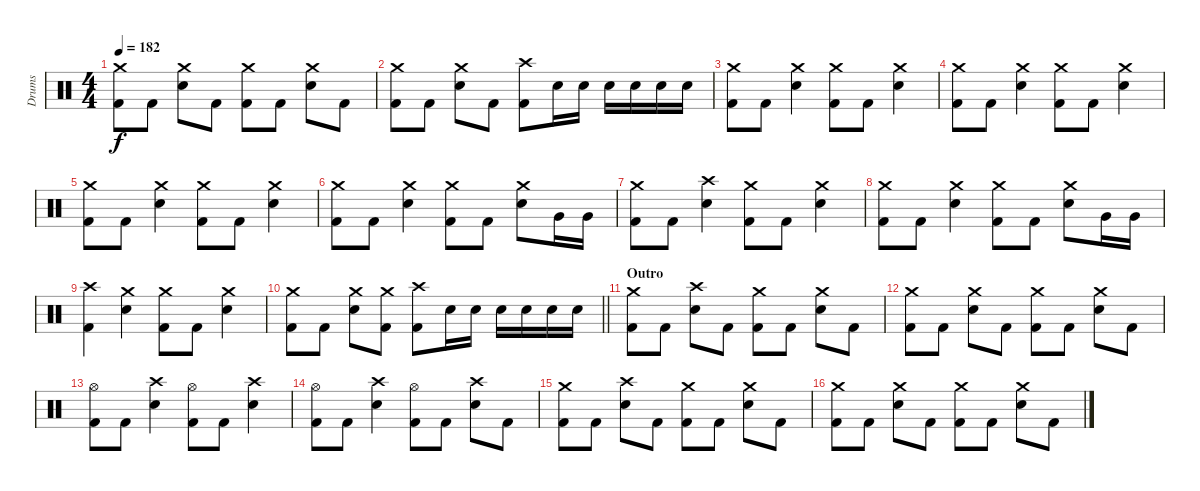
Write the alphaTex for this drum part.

\track ("Drums" "Drums") {instrument percussion}
\staff {score}
\articulation defaults
\ts (4 4)
\tempo 182
\clef neutral
\ks c
("Crash medium (hit)" "Kick (hit) 2").8{dy f} "Kick (hit) 2".8 ("Crash medium (hit)" "Electric Snare (hit)").8 "Kick (hit) 2".8 ("Crash medium (hit)" "Kick (hit) 2").8 "Kick (hit) 2".8 ("Crash medium (hit)" "Electric Snare (hit)").8 "Kick (hit) 2".8 |
("Crash medium (hit)" "Kick (hit) 2").8 "Kick (hit) 2".8 ("Crash medium (hit)" "Electric Snare (hit)").8 "Kick (hit) 2".8 ("Crash high (hit)" "Kick (hit) 2").8 "Electric Snare (hit)".16 "Electric Snare (hit)".16 "Electric Snare (hit)".16 "Electric Snare (hit)".16 "Electric Snare (hit)".16 "Electric Snare (hit)".16 |
("Crash medium (hit)" "Kick (hit) 2").8 "Kick (hit) 2".8 ("Crash medium (hit)" "Electric Snare (hit)").4 ("Crash medium (hit)" "Kick (hit) 2").8 "Kick (hit) 2".8 ("Crash medium (hit)" "Electric Snare (hit)").4 |
("Crash medium (hit)" "Kick (hit) 2").8 "Kick (hit) 2".8 ("Crash medium (hit)" "Electric Snare (hit)").4 ("Crash medium (hit)" "Kick (hit) 2").8 "Kick (hit) 2".8 ("Crash medium (hit)" "Electric Snare (hit)").4 |
("Crash medium (hit)" "Kick (hit) 2").8 "Kick (hit) 2".8 ("Crash medium (hit)" "Electric Snare (hit)").4 ("Crash medium (hit)" "Kick (hit) 2").8 "Kick (hit) 2".8 ("Crash medium (hit)" "Electric Snare (hit)").4 |
("Crash medium (hit)" "Kick (hit) 2").8 "Kick (hit) 2".8 ("Crash medium (hit)" "Electric Snare (hit)").4 ("Crash medium (hit)" "Kick (hit) 2").8 "Kick (hit) 2".8 ("Crash medium (hit)" "Electric Snare (hit)").8 "Very Low Tom (hit)".16 "Very Low Tom (hit)".16 |
("Crash medium (hit)" "Kick (hit) 2").8 "Kick (hit) 2".8 ("Crash high (hit)" "Electric Snare (hit)").4 ("Crash medium (hit)" "Kick (hit) 2").8 "Kick (hit) 2".8 ("Crash medium (hit)" "Electric Snare (hit)").4 |
("Crash medium (hit)" "Kick (hit) 2").8 "Kick (hit) 2".8 ("Crash medium (hit)" "Electric Snare (hit)").4 ("Crash medium (hit)" "Kick (hit) 2").8 "Kick (hit) 2".8 ("Crash medium (hit)" "Electric Snare (hit)").8 "Very Low Tom (hit)".16 "Very Low Tom (hit)".16 |
("Crash high (hit)" "Kick (hit) 2").4 ("Crash medium (hit)" "Electric Snare (hit)").4 ("Crash medium (hit)" "Kick (hit) 2").8 "Kick (hit) 2".8 ("Crash medium (hit)" "Electric Snare (hit)").4 |
\barLineRight lightlight
("Crash medium (hit)" "Kick (hit) 2").8 "Kick (hit) 2".8 ("Crash medium (hit)" "Electric Snare (hit)").8 ("Crash medium (hit)" "Kick (hit) 2").8 ("Crash high (hit)" "Kick (hit) 2").8 "Electric Snare (hit)".16 "Electric Snare (hit)".16 "Electric Snare (hit)".16 "Electric Snare (hit)".16 "Electric Snare (hit)".16 "Electric Snare (hit)".16 |
\section ("" "Outro")
("Crash medium (hit)" "Kick (hit) 2").8 "Kick (hit) 2".8 ("Crash high (hit)" "Electric Snare (hit)").8 "Kick (hit) 2".8 ("Crash medium (hit)" "Kick (hit) 2").8 "Kick (hit) 2".8 ("Crash medium (hit)" "Electric Snare (hit)").8 "Kick (hit) 2".8 |
("Crash medium (hit)" "Kick (hit) 2").8 "Kick (hit) 2".8 ("Crash medium (hit)" "Electric Snare (hit)").8 "Kick (hit) 2".8 ("Crash medium (hit)" "Kick (hit) 2").8 "Kick (hit) 2".8 ("Crash medium (hit)" "Electric Snare (hit)").8 "Kick (hit) 2".8 |
("Hi-Hat (open)" "Kick (hit) 2").8 "Kick (hit) 2".8 ("Crash high (hit)" "Electric Snare (hit)").4 ("Hi-Hat (open)" "Kick (hit) 2").8 "Kick (hit) 2".8 ("Crash high (hit)" "Electric Snare (hit)").4 |
("Hi-Hat (open)" "Kick (hit) 2").8 "Kick (hit) 2".8 ("Crash high (hit)" "Electric Snare (hit)").4 ("Hi-Hat (open)" "Kick (hit) 2").8 "Kick (hit) 2".8 ("Crash high (hit)" "Electric Snare (hit)").8 "Kick (hit) 2".8 |
("Crash medium (hit)" "Kick (hit) 2").8 "Kick (hit) 2".8 ("Crash high (hit)" "Electric Snare (hit)").8 "Kick (hit) 2".8 ("Crash medium (hit)" "Kick (hit) 2").8 "Kick (hit) 2".8 ("Crash medium (hit)" "Electric Snare (hit)").8 "Kick (hit) 2".8 |
("Crash medium (hit)" "Kick (hit) 2").8 "Kick (hit) 2".8 ("Crash medium (hit)" "Electric Snare (hit)").8 "Kick (hit) 2".8 ("Crash medium (hit)" "Kick (hit) 2").8 "Kick (hit) 2".8 ("Crash medium (hit)" "Electric Snare (hit)").8 "Kick (hit) 2".8
